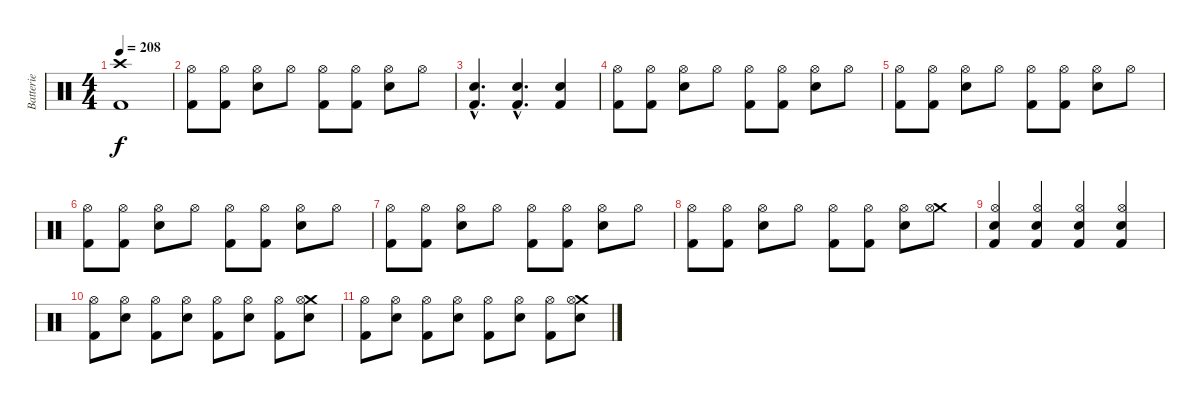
\track ("Batterie" "Batterie") {instrument percussion}
\staff {score}
\articulation defaults
\ts (4 4)
\tempo 208
\clef neutral
\ks c
("Crash high (hit)" "Kick (hit) 2").1{dy f} |
("Hi-Hat (open)" "Kick (hit) 2").8 ("Hi-Hat (open)" "Kick (hit) 2").8 ("Hi-Hat (open)" "Snare (hit) 2").8 "Hi-Hat (open)".8 ("Hi-Hat (open)" "Kick (hit) 2").8 ("Hi-Hat (open)" "Kick (hit) 2").8 ("Hi-Hat (open)" "Snare (hit) 2").8 "Hi-Hat (open)".8 |
("Snare (hit) 2"{hac} "Kick (hit) 2"{hac}).4{d} ("Snare (hit) 2"{hac} "Kick (hit) 2"{hac}).4{d} ("Snare (hit) 2" "Kick (hit) 2").4 |
("Hi-Hat (open)" "Kick (hit) 2").8 ("Hi-Hat (open)" "Kick (hit) 2").8 ("Hi-Hat (open)" "Snare (hit) 2").8 "Hi-Hat (open)".8 ("Hi-Hat (open)" "Kick (hit) 2").8 ("Hi-Hat (open)" "Kick (hit) 2").8 ("Hi-Hat (open)" "Snare (hit) 2").8 "Hi-Hat (open)".8 |
("Hi-Hat (open)" "Kick (hit) 2").8 ("Hi-Hat (open)" "Kick (hit) 2").8 ("Hi-Hat (open)" "Snare (hit) 2").8 "Hi-Hat (open)".8 ("Hi-Hat (open)" "Kick (hit) 2").8 ("Hi-Hat (open)" "Kick (hit) 2").8 ("Hi-Hat (open)" "Snare (hit) 2").8 "Hi-Hat (open)".8 |
("Hi-Hat (open)" "Kick (hit) 2").8 ("Hi-Hat (open)" "Kick (hit) 2").8 ("Hi-Hat (open)" "Snare (hit) 2").8 "Hi-Hat (open)".8 ("Hi-Hat (open)" "Kick (hit) 2").8 ("Hi-Hat (open)" "Kick (hit) 2").8 ("Hi-Hat (open)" "Snare (hit) 2").8 "Hi-Hat (open)".8 |
("Hi-Hat (open)" "Kick (hit) 2").8 ("Hi-Hat (open)" "Kick (hit) 2").8 ("Hi-Hat (open)" "Snare (hit) 2").8 "Hi-Hat (open)".8 ("Hi-Hat (open)" "Kick (hit) 2").8 ("Hi-Hat (open)" "Kick (hit) 2").8 ("Hi-Hat (open)" "Snare (hit) 2").8 "Hi-Hat (open)".8 |
("Hi-Hat (open)" "Kick (hit) 2").8 ("Hi-Hat (open)" "Kick (hit) 2").8 ("Hi-Hat (open)" "Snare (hit) 2").8 "Hi-Hat (open)".8 ("Hi-Hat (open)" "Kick (hit) 2").8 ("Hi-Hat (open)" "Kick (hit) 2").8 ("Hi-Hat (open)" "Snare (hit) 2").8 ("Crash medium (hit)" "Hi-Hat (open)").8 |
("Hi-Hat (open)" "Snare (hit) 2" "Kick (hit) 2").4 ("Hi-Hat (open)" "Snare (hit) 2" "Kick (hit) 2").4 ("Hi-Hat (open)" "Snare (hit) 2" "Kick (hit) 2").4 ("Hi-Hat (open)" "Snare (hit) 2" "Kick (hit) 2").4 |
("Hi-Hat (open)" "Kick (hit) 2").8 ("Hi-Hat (open)" "Snare (hit) 2").8 ("Hi-Hat (open)" "Kick (hit) 2").8 ("Hi-Hat (open)" "Snare (hit) 2").8 ("Hi-Hat (open)" "Kick (hit) 2").8 ("Hi-Hat (open)" "Snare (hit) 2").8 ("Hi-Hat (open)" "Kick (hit) 2").8 ("Crash medium (hit)" "Hi-Hat (open)" "Snare (hit) 2").8 |
("Hi-Hat (open)" "Kick (hit) 2").8 ("Hi-Hat (open)" "Snare (hit) 2").8 ("Hi-Hat (open)" "Kick (hit) 2").8 ("Hi-Hat (open)" "Snare (hit) 2").8 ("Hi-Hat (open)" "Kick (hit) 2").8 ("Hi-Hat (open)" "Snare (hit) 2").8 ("Hi-Hat (open)" "Kick (hit) 2").8 ("Crash medium (hit)" "Hi-Hat (open)" "Snare (hit) 2").8
